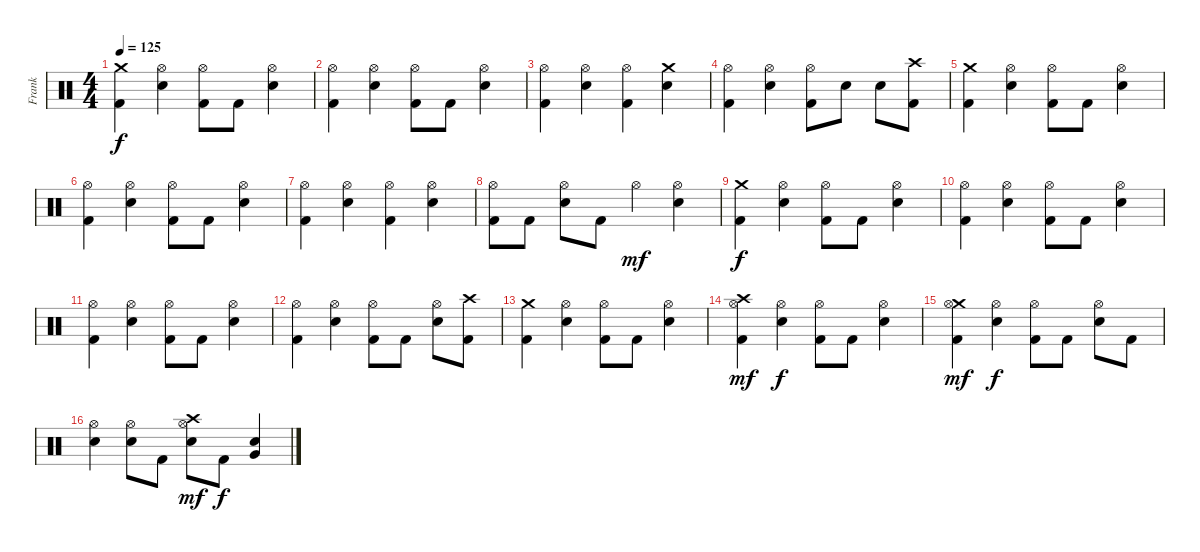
\track ("Frank" "Frank") {instrument percussion}
\staff {score}
\articulation defaults
\ts (4 4)
\tempo 125
\clef neutral
\ks c
("Crash medium (hit)" "Kick (hit) 2").4{dy f} ("Hi-Hat (open)" "Electric Snare (hit)").4 ("Hi-Hat (open)" "Kick (hit) 2").8 "Kick (hit) 2".8 ("Hi-Hat (open)" "Electric Snare (hit)").4 |
("Hi-Hat (open)" "Kick (hit) 2").4 ("Hi-Hat (open)" "Electric Snare (hit)").4 ("Hi-Hat (open)" "Kick (hit) 2").8 "Kick (hit) 2".8 ("Hi-Hat (open)" "Electric Snare (hit)").4 |
("Hi-Hat (open)" "Kick (hit) 2").4 ("Hi-Hat (open)" "Electric Snare (hit)").4 ("Hi-Hat (open)" "Kick (hit) 2").4 ("Crash medium (hit)" "Electric Snare (hit)").4 |
("Hi-Hat (open)" "Kick (hit) 2").4 ("Hi-Hat (open)" "Electric Snare (hit)").4 ("Hi-Hat (open)" "Kick (hit) 2").8 "Electric Snare (hit)".8 "Electric Snare (hit)".8 ("Crash high (hit)" "Kick (hit) 2").8 |
("Crash medium (hit)" "Kick (hit) 2").4 ("Hi-Hat (open)" "Electric Snare (hit)").4 ("Hi-Hat (open)" "Kick (hit) 2").8 "Kick (hit) 2".8 ("Hi-Hat (open)" "Electric Snare (hit)").4 |
("Hi-Hat (open)" "Kick (hit) 2").4 ("Hi-Hat (open)" "Electric Snare (hit)").4 ("Hi-Hat (open)" "Kick (hit) 2").8 "Kick (hit) 2".8 ("Hi-Hat (open)" "Electric Snare (hit)").4 |
("Hi-Hat (open)" "Kick (hit) 2").4 ("Hi-Hat (open)" "Electric Snare (hit)").4 ("Hi-Hat (open)" "Kick (hit) 2").4 ("Hi-Hat (open)" "Electric Snare (hit)").4 |
("Hi-Hat (open)" "Kick (hit) 2").8 "Kick (hit) 2".8 ("Hi-Hat (open)" "Electric Snare (hit)").8 "Kick (hit) 2".8 "Hi-Hat (open)".4{dy mf} ("Hi-Hat (open)" "Electric Snare (hit)").4 |
("Crash medium (hit)" "Kick (hit) 2").4{dy f} ("Hi-Hat (open)" "Electric Snare (hit)").4 ("Hi-Hat (open)" "Kick (hit) 2").8 "Kick (hit) 2".8 ("Hi-Hat (open)" "Electric Snare (hit)").4 |
("Hi-Hat (open)" "Kick (hit) 2").4 ("Hi-Hat (open)" "Electric Snare (hit)").4 ("Hi-Hat (open)" "Kick (hit) 2").8 "Kick (hit) 2".8 ("Hi-Hat (open)" "Electric Snare (hit)").4 |
("Hi-Hat (open)" "Kick (hit) 2").4 ("Hi-Hat (open)" "Electric Snare (hit)").4 ("Hi-Hat (open)" "Kick (hit) 2").8 "Kick (hit) 2".8 ("Hi-Hat (open)" "Electric Snare (hit)").4 |
("Hi-Hat (open)" "Kick (hit) 2").4 ("Hi-Hat (open)" "Electric Snare (hit)").4 ("Hi-Hat (open)" "Kick (hit) 2").8 "Kick (hit) 2".8 ("Hi-Hat (open)" "Electric Snare (hit)").8 ("Crash high (hit)" "Kick (hit) 2").8 |
("Crash medium (hit)" "Kick (hit) 2").4 ("Hi-Hat (open)" "Electric Snare (hit)").4 ("Hi-Hat (open)" "Kick (hit) 2").8 "Kick (hit) 2".8 ("Hi-Hat (open)" "Electric Snare (hit)").4 |
("Crash high (hit)" "Hi-Hat (open)" "Kick (hit) 2").4{dy mf} ("Hi-Hat (open)" "Electric Snare (hit)").4{dy f} ("Hi-Hat (open)" "Kick (hit) 2").8 "Kick (hit) 2".8 ("Hi-Hat (open)" "Electric Snare (hit)").4 |
("Crash medium (hit)" "Hi-Hat (open)" "Kick (hit) 2").4{dy mf} ("Hi-Hat (open)" "Electric Snare (hit)").4{dy f} ("Hi-Hat (open)" "Kick (hit) 2").8 "Kick (hit) 2".8 ("Hi-Hat (open)" "Electric Snare (hit)").8 "Kick (hit) 2".8 |
("Hi-Hat (open)" "Electric Snare (hit)").4 ("Hi-Hat (open)" "Electric Snare (hit)").8 "Kick (hit) 2".8 ("Crash high (hit)" "Hi-Hat (open)" "Electric Snare (hit)").8{dy mf} "Kick (hit) 2".8{dy f} ("Very Low Tom (hit)" "Electric Snare (hit)").4
